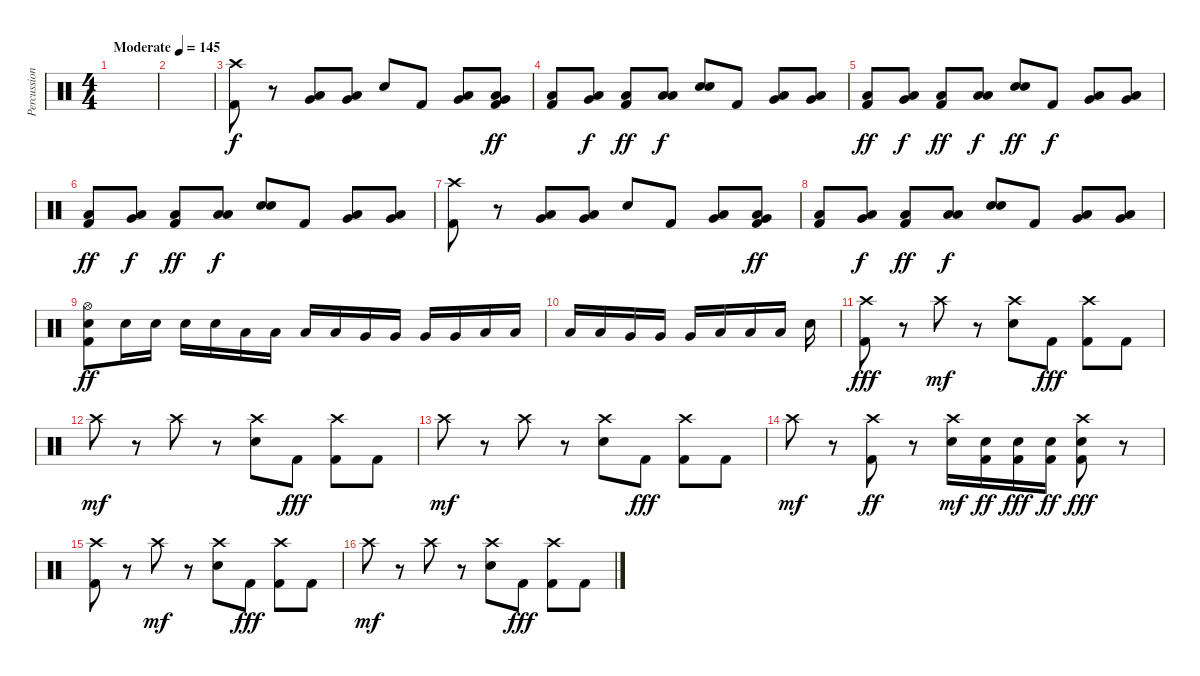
\track ("Percussion" "Percussion") {instrument percussion}
\staff {score}
\articulation defaults
\ts (4 4)
\tempo (145 "Moderate")
\clef neutral
\ks c
|
|
("Crash high (hit)" "Kick (hit) 2").8 r.8 ("Low Tom (hit)" "Very Low Tom (hit)").8 ("Low Tom (hit)" "Very Low Tom (hit)").8 "Electric Snare (hit)".8 "Kick (hit) 2".8 ("Very Low Tom (hit)" "Low Floor Tom (hit)").8 ("Very Low Tom (hit)" "Low Floor Tom (hit)" "Kick (hit) 2").8{dy ff} |
("Low Tom (hit)" "Kick (hit) 2").8 ("Low Tom (hit)" "Very Low Tom (hit)").8{dy f} ("Low Tom (hit)" "Kick (hit) 2").8{dy ff} ("Low Tom (hit)" "Low Floor Tom (hit)").8{dy f} ("Electric Snare (hit)" "Electric Snare (hit)").8 "Kick (hit) 2".8 ("Very Low Tom (hit)" "Low Floor Tom (hit)").8 ("Very Low Tom (hit)" "Low Floor Tom (hit)").8 |
("Low Tom (hit)" "Kick (hit) 2").8{dy ff} ("Low Tom (hit)" "Very Low Tom (hit)").8{dy f} ("Low Tom (hit)" "Kick (hit) 2").8{dy ff} ("Low Tom (hit)" "Low Floor Tom (hit)").8{dy f} ("Electric Snare (hit)" "Electric Snare (hit)").8{dy ff} "Kick (hit) 2".8{dy f} ("Very Low Tom (hit)" "Low Floor Tom (hit)").8 ("Very Low Tom (hit)" "Low Floor Tom (hit)").8 |
("Low Tom (hit)" "Kick (hit) 2").8{dy ff} ("Low Tom (hit)" "Very Low Tom (hit)").8{dy f} ("Low Tom (hit)" "Kick (hit) 2").8{dy ff} ("Low Tom (hit)" "Low Floor Tom (hit)").8{dy f} ("Electric Snare (hit)" "Electric Snare (hit)").8 "Kick (hit) 2".8 ("Very Low Tom (hit)" "Low Floor Tom (hit)").8 ("Very Low Tom (hit)" "Low Floor Tom (hit)").8 |
("Crash high (hit)" "Kick (hit) 2").8 r.8 ("Low Tom (hit)" "Very Low Tom (hit)").8 ("Low Tom (hit)" "Very Low Tom (hit)").8 "Electric Snare (hit)".8 "Kick (hit) 2".8 ("Very Low Tom (hit)" "Low Floor Tom (hit)").8 ("Very Low Tom (hit)" "Low Floor Tom (hit)" "Kick (hit) 2").8{dy ff} |
("Low Tom (hit)" "Kick (hit) 2").8 ("Low Tom (hit)" "Very Low Tom (hit)").8{dy f} ("Low Tom (hit)" "Kick (hit) 2").8{dy ff} ("Low Tom (hit)" "Low Floor Tom (hit)").8{dy f} ("Electric Snare (hit)" "Electric Snare (hit)").8 "Kick (hit) 2".8 ("Very Low Tom (hit)" "Low Floor Tom (hit)").8 ("Very Low Tom (hit)" "Low Floor Tom (hit)").8 |
("Hi-Hat (open)" "Electric Snare (hit)" "Kick (hit) 2").8{dy ff} "Electric Snare (hit)".16 "Electric Snare (hit)".16 "Electric Snare (hit)".16 "Electric Snare (hit)".16 "Low Tom (hit)".16 "Low Tom (hit)".16 "Low Tom (hit)".16 "Low Tom (hit)".16 "Very Low Tom (hit)".16 "Very Low Tom (hit)".16 "Very Low Tom (hit)".16 "Very Low Tom (hit)".16 "Low Floor Tom (hit)".16 "Low Floor Tom (hit)".16 |
"Low Floor Tom (hit)".16 "Low Floor Tom (hit)".16 "Very Low Tom (hit)".16 "Very Low Tom (hit)".16 "Very Low Tom (hit)".16 "Low Tom (hit)".16 "Low Tom (hit)".16 "Low Tom (hit)".16 "Electric Snare (hit)".16 |
("Crash high (hit)" "Kick (hit) 2").8{dy fff} r.8 "Crash high (hit)".8{dy mf} r.8 ("Crash high (hit)" "Electric Snare (hit)").8 "Kick (hit) 2".8{dy fff} ("Crash high (hit)" "Kick (hit) 2").8 "Kick (hit) 2".8 |
"Crash high (hit)".8{dy mf} r.8 "Crash high (hit)".8 r.8 ("Crash high (hit)" "Electric Snare (hit)").8 "Kick (hit) 2".8{dy fff} ("Crash high (hit)" "Kick (hit) 2").8 "Kick (hit) 2".8 |
"Crash high (hit)".8{dy mf} r.8 "Crash high (hit)".8 r.8 ("Crash high (hit)" "Electric Snare (hit)").8 "Kick (hit) 2".8{dy fff} ("Crash high (hit)" "Kick (hit) 2").8 "Kick (hit) 2".8 |
"Crash high (hit)".8{dy mf} r.8 ("Crash high (hit)" "Kick (hit) 2").8{dy ff} r.8 ("Crash high (hit)" "Electric Snare (hit)").16{dy mf} ("Electric Snare (hit)" "Kick (hit) 2").16{dy ff} ("Electric Snare (hit)" "Kick (hit) 2").16{dy fff} ("Electric Snare (hit)" "Kick (hit) 2").16{dy ff} ("Crash high (hit)" "Electric Snare (hit)" "Kick (hit) 2").8{dy fff} r.8 |
("Crash high (hit)" "Kick (hit) 2").8 r.8 "Crash high (hit)".8{dy mf} r.8 ("Crash high (hit)" "Electric Snare (hit)").8 "Kick (hit) 2".8{dy fff} ("Crash high (hit)" "Kick (hit) 2").8 "Kick (hit) 2".8 |
"Crash high (hit)".8{dy mf} r.8 "Crash high (hit)".8 r.8 ("Crash high (hit)" "Electric Snare (hit)").8 "Kick (hit) 2".8{dy fff} ("Crash high (hit)" "Kick (hit) 2").8 "Kick (hit) 2".8
